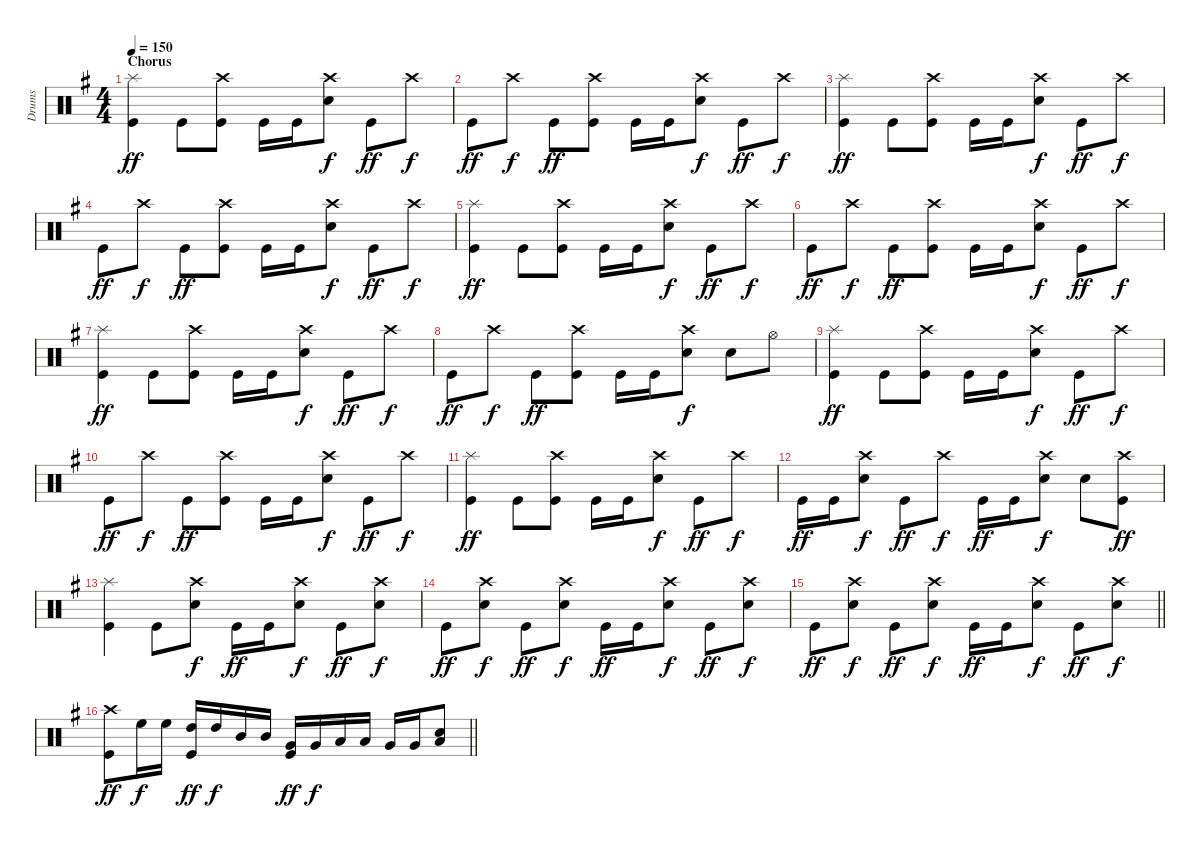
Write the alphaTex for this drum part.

\track ("Drums" "Drums") {instrument percussion}
\staff {score}
\articulation defaults
\ts (4 4)
\section ("" "Chorus")
\tempo 150
\clef neutral
\ks g
("Splash (hit)" "Kick (hit)").4{dy ff} "Kick (hit)".8 ("Crash high (hit)" "Kick (hit)").8 "Kick (hit)".16 "Kick (hit)".16 ("Crash high (hit)" "Electric Snare (hit)").8{dy f} "Kick (hit)".8{dy ff} "Crash high (hit)".8{dy f} |
"Kick (hit)".8{dy ff} "Crash high (hit)".8{dy f} "Kick (hit)".8{dy ff} ("Crash high (hit)" "Kick (hit)").8 "Kick (hit)".16 "Kick (hit)".16 ("Crash high (hit)" "Electric Snare (hit)").8{dy f} "Kick (hit)".8{dy ff} "Crash high (hit)".8{dy f} |
("Splash (hit)" "Kick (hit)").4{dy ff} "Kick (hit)".8 ("Crash high (hit)" "Kick (hit)").8 "Kick (hit)".16 "Kick (hit)".16 ("Crash high (hit)" "Electric Snare (hit)").8{dy f} "Kick (hit)".8{dy ff} "Crash high (hit)".8{dy f} |
"Kick (hit)".8{dy ff} "Crash high (hit)".8{dy f} "Kick (hit)".8{dy ff} ("Crash high (hit)" "Kick (hit)").8 "Kick (hit)".16 "Kick (hit)".16 ("Crash high (hit)" "Electric Snare (hit)").8{dy f} "Kick (hit)".8{dy ff} "Crash high (hit)".8{dy f} |
("Splash (hit)" "Kick (hit)").4{dy ff} "Kick (hit)".8 ("Crash high (hit)" "Kick (hit)").8 "Kick (hit)".16 "Kick (hit)".16 ("Crash high (hit)" "Electric Snare (hit)").8{dy f} "Kick (hit)".8{dy ff} "Crash high (hit)".8{dy f} |
"Kick (hit)".8{dy ff} "Crash high (hit)".8{dy f} "Kick (hit)".8{dy ff} ("Crash high (hit)" "Kick (hit)").8 "Kick (hit)".16 "Kick (hit)".16 ("Crash high (hit)" "Electric Snare (hit)").8{dy f} "Kick (hit)".8{dy ff} "Crash high (hit)".8{dy f} |
("Splash (hit)" "Kick (hit)").4{dy ff} "Kick (hit)".8 ("Crash high (hit)" "Kick (hit)").8 "Kick (hit)".16 "Kick (hit)".16 ("Crash high (hit)" "Electric Snare (hit)").8{dy f} "Kick (hit)".8{dy ff} "Crash high (hit)".8{dy f} |
"Kick (hit)".8{dy ff} "Crash high (hit)".8{dy f} "Kick (hit)".8{dy ff} ("Crash high (hit)" "Kick (hit)").8 "Kick (hit)".16 "Kick (hit)".16 ("Crash high (hit)" "Electric Snare (hit)").8{dy f} "Electric Snare (hit)".8 "Hi-Hat (open)".8 |
("Splash (hit)" "Kick (hit)").4{dy ff} "Kick (hit)".8 ("Crash high (hit)" "Kick (hit)").8 "Kick (hit)".16 "Kick (hit)".16 ("Crash high (hit)" "Electric Snare (hit)").8{dy f} "Kick (hit)".8{dy ff} "Crash high (hit)".8{dy f} |
"Kick (hit)".8{dy ff} "Crash high (hit)".8{dy f} "Kick (hit)".8{dy ff} ("Crash high (hit)" "Kick (hit)").8 "Kick (hit)".16 "Kick (hit)".16 ("Crash high (hit)" "Electric Snare (hit)").8{dy f} "Kick (hit)".8{dy ff} "Crash high (hit)".8{dy f} |
("Splash (hit)" "Kick (hit)").4{dy ff} "Kick (hit)".8 ("Crash high (hit)" "Kick (hit)").8 "Kick (hit)".16 "Kick (hit)".16 ("Crash high (hit)" "Electric Snare (hit)").8{dy f} "Kick (hit)".8{dy ff} "Crash high (hit)".8{dy f} |
"Kick (hit)".16{dy ff} "Kick (hit)".16 ("Crash high (hit)" "Electric Snare (hit)").8{dy f} "Kick (hit)".8{dy ff} "Crash high (hit)".8{dy f} "Kick (hit)".16{dy ff} "Kick (hit)".16 ("Crash high (hit)" "Electric Snare (hit)").8{dy f} "Electric Snare (hit)".8 ("Crash high (hit)" "Kick (hit)").8{dy ff} |
("Splash (hit)" "Kick (hit)").4 "Kick (hit)".8 ("Crash high (hit)" "Electric Snare (hit)").8{dy f} "Kick (hit)".16{dy ff} "Kick (hit)".16 ("Crash high (hit)" "Electric Snare (hit)").8{dy f} "Kick (hit)".8{dy ff} ("Crash high (hit)" "Electric Snare (hit)").8{dy f} |
"Kick (hit)".8{dy ff} ("Crash high (hit)" "Electric Snare (hit)").8{dy f} "Kick (hit)".8{dy ff} ("Crash high (hit)" "Electric Snare (hit)").8{dy f} "Kick (hit)".16{dy ff} "Kick (hit)".16 ("Crash high (hit)" "Electric Snare (hit)").8{dy f} "Kick (hit)".8{dy ff} ("Crash high (hit)" "Electric Snare (hit)").8{dy f} |
\barLineRight lightlight "Kick (hit)".8{dy ff}
("Crash high (hit)" "Electric Snare (hit)").8{dy f} "Kick (hit)".8{dy ff} ("Crash high (hit)" "Electric Snare (hit)").8{dy f} "Kick (hit)".16{dy ff} "Kick (hit)".16 ("Crash high (hit)" "Electric Snare (hit)").8{dy f} "Kick (hit)".8{dy ff} ("Crash high (hit)" "Electric Snare (hit)").8{dy f} |
\barLineRight lightlight
("Crash high (hit)" "Kick (hit)").8{dy ff} "High Floor Tom (hit)".16{dy f} "High Floor Tom (hit)".16 ("High Tom (hit)" "Kick (hit)").16{dy ff} "High Tom (hit)".16{dy f} "Mid Tom (hit)".16 "Mid Tom (hit)".16 ("Very Low Tom (hit)" "Kick (hit)").16{dy ff} "Very Low Tom (hit)".16{dy f} "Low Tom (hit)".16 "Low Tom (hit)".16 "Very Low Tom (hit)".16 "Very Low Tom (hit)".16 ("Electric Snare (hit)" "Low Floor Tom (hit)").8
